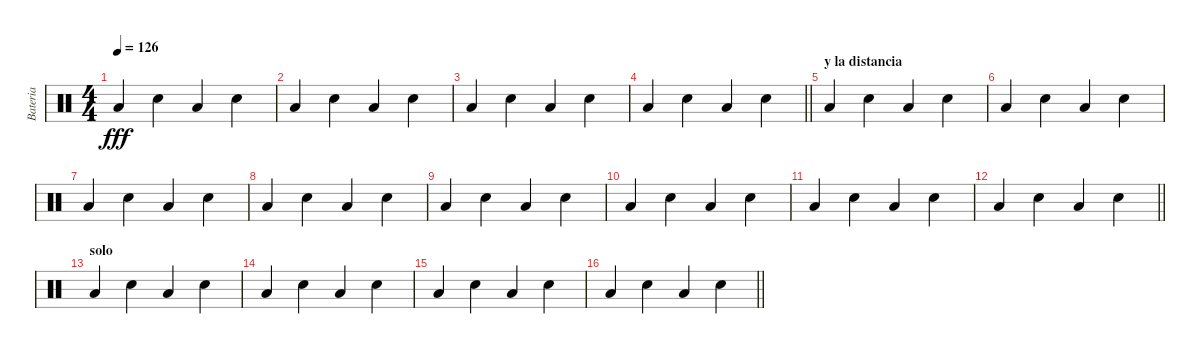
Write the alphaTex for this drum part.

\track ("Bateria" "Bateria") {instrument percussion}
\staff {score}
\articulation defaults
\ts (4 4)
\tempo 126
\clef neutral
\ks c "Low Floor Tom (hit)".4{dy fff} "Snare (hit) 2".4 "Low Floor Tom (hit)".4 "Snare (hit) 2".4
|
"Low Floor Tom (hit)".4 "Snare (hit) 2".4 "Low Floor Tom (hit)".4 "Snare (hit) 2".4 |
"Low Floor Tom (hit)".4 "Snare (hit) 2".4 "Low Floor Tom (hit)".4 "Snare (hit) 2".4 |
\barLineRight lightlight "Low Floor Tom (hit)".4 "Snare (hit) 2".4 "Low Floor Tom (hit)".4 "Snare (hit) 2".4
|
\section ("" "y la distancia")
"Low Floor Tom (hit)".4 "Snare (hit) 2".4 "Low Floor Tom (hit)".4 "Snare (hit) 2".4 |
"Low Floor Tom (hit)".4 "Snare (hit) 2".4 "Low Floor Tom (hit)".4 "Snare (hit) 2".4 |
"Low Floor Tom (hit)".4 "Snare (hit) 2".4 "Low Floor Tom (hit)".4 "Snare (hit) 2".4 |
"Low Floor Tom (hit)".4 "Snare (hit) 2".4 "Low Floor Tom (hit)".4 "Snare (hit) 2".4 |
"Low Floor Tom (hit)".4 "Snare (hit) 2".4 "Low Floor Tom (hit)".4 "Snare (hit) 2".4 |
"Low Floor Tom (hit)".4 "Snare (hit) 2".4 "Low Floor Tom (hit)".4 "Snare (hit) 2".4 |
"Low Floor Tom (hit)".4 "Snare (hit) 2".4 "Low Floor Tom (hit)".4 "Snare (hit) 2".4 |
\barLineRight lightlight "Low Floor Tom (hit)".4 "Snare (hit) 2".4 "Low Floor Tom (hit)".4 "Snare (hit) 2".4
|
\section ("" "solo")
"Low Floor Tom (hit)".4 "Snare (hit) 2".4 "Low Floor Tom (hit)".4 "Snare (hit) 2".4 |
"Low Floor Tom (hit)".4 "Snare (hit) 2".4 "Low Floor Tom (hit)".4 "Snare (hit) 2".4 |
"Low Floor Tom (hit)".4 "Snare (hit) 2".4 "Low Floor Tom (hit)".4 "Snare (hit) 2".4 |
\barLineRight lightlight "Low Floor Tom (hit)".4 "Snare (hit) 2".4 "Low Floor Tom (hit)".4 "Snare (hit) 2".4
